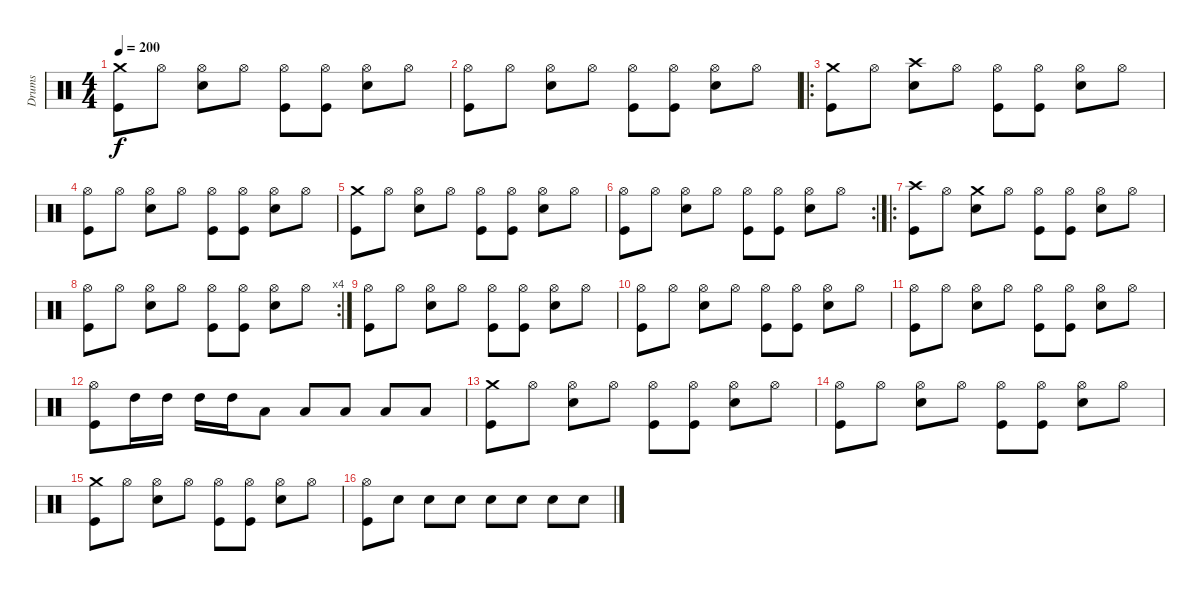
\track ("Drums" "Drums") {instrument percussion}
\staff {score}
\articulation defaults
\ts (4 4)
\tempo 200
\clef neutral
\ks c
("Crash medium (hit)" "Kick (hit)").8{dy f} "Hi-Hat (open)".8 ("Hi-Hat (open)" "Snare (hit) 2").8 "Hi-Hat (open)".8 ("Hi-Hat (open)" "Kick (hit)").8 ("Hi-Hat (open)" "Kick (hit)").8 ("Hi-Hat (open)" "Snare (hit) 2").8 "Hi-Hat (open)".8 |
("Hi-Hat (open)" "Kick (hit)").8 "Hi-Hat (open)".8 ("Hi-Hat (open)" "Snare (hit) 2").8 "Hi-Hat (open)".8 ("Hi-Hat (open)" "Kick (hit)").8 ("Hi-Hat (open)" "Kick (hit)").8 ("Hi-Hat (open)" "Snare (hit) 2").8 "Hi-Hat (open)".8 |
\ro
("Crash medium (hit)" "Kick (hit)").8 "Hi-Hat (open)".8 ("Crash high (hit)" "Snare (hit) 2").8 "Hi-Hat (open)".8 ("Hi-Hat (open)" "Kick (hit)").8 ("Hi-Hat (open)" "Kick (hit)").8 ("Hi-Hat (open)" "Snare (hit) 2").8 "Hi-Hat (open)".8 |
("Hi-Hat (open)" "Kick (hit)").8 "Hi-Hat (open)".8 ("Hi-Hat (open)" "Snare (hit) 2").8 "Hi-Hat (open)".8 ("Hi-Hat (open)" "Kick (hit)").8 ("Hi-Hat (open)" "Kick (hit)").8 ("Hi-Hat (open)" "Snare (hit) 2").8 "Hi-Hat (open)".8 |
("Crash medium (hit)" "Kick (hit)").8 "Hi-Hat (open)".8 ("Hi-Hat (open)" "Snare (hit) 2").8 "Hi-Hat (open)".8 ("Hi-Hat (open)" "Kick (hit)").8 ("Hi-Hat (open)" "Kick (hit)").8 ("Hi-Hat (open)" "Snare (hit) 2").8 "Hi-Hat (open)".8 |
\rc 2
("Hi-Hat (open)" "Kick (hit)").8 "Hi-Hat (open)".8 ("Hi-Hat (open)" "Snare (hit) 2").8 "Hi-Hat (open)".8 ("Hi-Hat (open)" "Kick (hit)").8 ("Hi-Hat (open)" "Kick (hit)").8 ("Hi-Hat (open)" "Snare (hit) 2").8 "Hi-Hat (open)".8 |
\ro
("Crash high (hit)" "Kick (hit)").8 "Hi-Hat (open)".8 ("Crash medium (hit)" "Snare (hit) 2").8 "Hi-Hat (open)".8 ("Hi-Hat (open)" "Kick (hit)").8 ("Hi-Hat (open)" "Kick (hit)").8 ("Hi-Hat (open)" "Snare (hit) 2").8 "Hi-Hat (open)".8 |
\rc 4
("Hi-Hat (open)" "Kick (hit)").8 "Hi-Hat (open)".8 ("Hi-Hat (open)" "Snare (hit) 2").8 "Hi-Hat (open)".8 ("Hi-Hat (open)" "Kick (hit)").8 ("Hi-Hat (open)" "Kick (hit)").8 ("Hi-Hat (open)" "Snare (hit) 2").8 "Hi-Hat (open)".8 |
("Hi-Hat (open)" "Kick (hit)").8 "Hi-Hat (open)".8 ("Hi-Hat (open)" "Snare (hit) 2").8 "Hi-Hat (open)".8 ("Hi-Hat (open)" "Kick (hit)").8 ("Hi-Hat (open)" "Kick (hit)").8 ("Hi-Hat (open)" "Snare (hit) 2").8 "Hi-Hat (open)".8 |
("Hi-Hat (open)" "Kick (hit)").8 "Hi-Hat (open)".8 ("Hi-Hat (open)" "Snare (hit) 2").8 "Hi-Hat (open)".8 ("Hi-Hat (open)" "Kick (hit)").8 ("Hi-Hat (open)" "Kick (hit)").8 ("Hi-Hat (open)" "Snare (hit) 2").8 "Hi-Hat (open)".8 |
("Hi-Hat (open)" "Kick (hit)").8 "Hi-Hat (open)".8 ("Hi-Hat (open)" "Snare (hit) 2").8 "Hi-Hat (open)".8 ("Hi-Hat (open)" "Kick (hit)").8 ("Hi-Hat (open)" "Kick (hit)").8 ("Hi-Hat (open)" "Snare (hit) 2").8 "Hi-Hat (open)".8 |
("Hi-Hat (open)" "Kick (hit)").8 "High Tom (hit)".16 "High Tom (hit)".16 "High Tom (hit)".16 "High Tom (hit)".16 "Low Tom (hit)".8 "Low Tom (hit)".8 "Low Tom (hit)".8 "Low Tom (hit)".8 "Low Tom (hit)".8 |
("Crash medium (hit)" "Kick (hit)").8 "Hi-Hat (open)".8 ("Hi-Hat (open)" "Snare (hit) 2").8 "Hi-Hat (open)".8 ("Hi-Hat (open)" "Kick (hit)").8 ("Hi-Hat (open)" "Kick (hit)").8 ("Hi-Hat (open)" "Snare (hit) 2").8 "Hi-Hat (open)".8 |
("Hi-Hat (open)" "Kick (hit)").8 "Hi-Hat (open)".8 ("Hi-Hat (open)" "Snare (hit) 2").8 "Hi-Hat (open)".8 ("Hi-Hat (open)" "Kick (hit)").8 ("Hi-Hat (open)" "Kick (hit)").8 ("Hi-Hat (open)" "Snare (hit) 2").8 "Hi-Hat (open)".8 |
("Crash medium (hit)" "Kick (hit)").8 "Hi-Hat (open)".8 ("Hi-Hat (open)" "Snare (hit) 2").8 "Hi-Hat (open)".8 ("Hi-Hat (open)" "Kick (hit)").8 ("Hi-Hat (open)" "Kick (hit)").8 ("Hi-Hat (open)" "Snare (hit) 2").8 "Hi-Hat (open)".8 |
("Hi-Hat (open)" "Kick (hit)").8 "Snare (hit) 2".8 "Snare (hit) 2".8 "Snare (hit) 2".8 "Snare (hit) 2".8 "Snare (hit) 2".8 "Snare (hit) 2".8 "Snare (hit) 2".8
